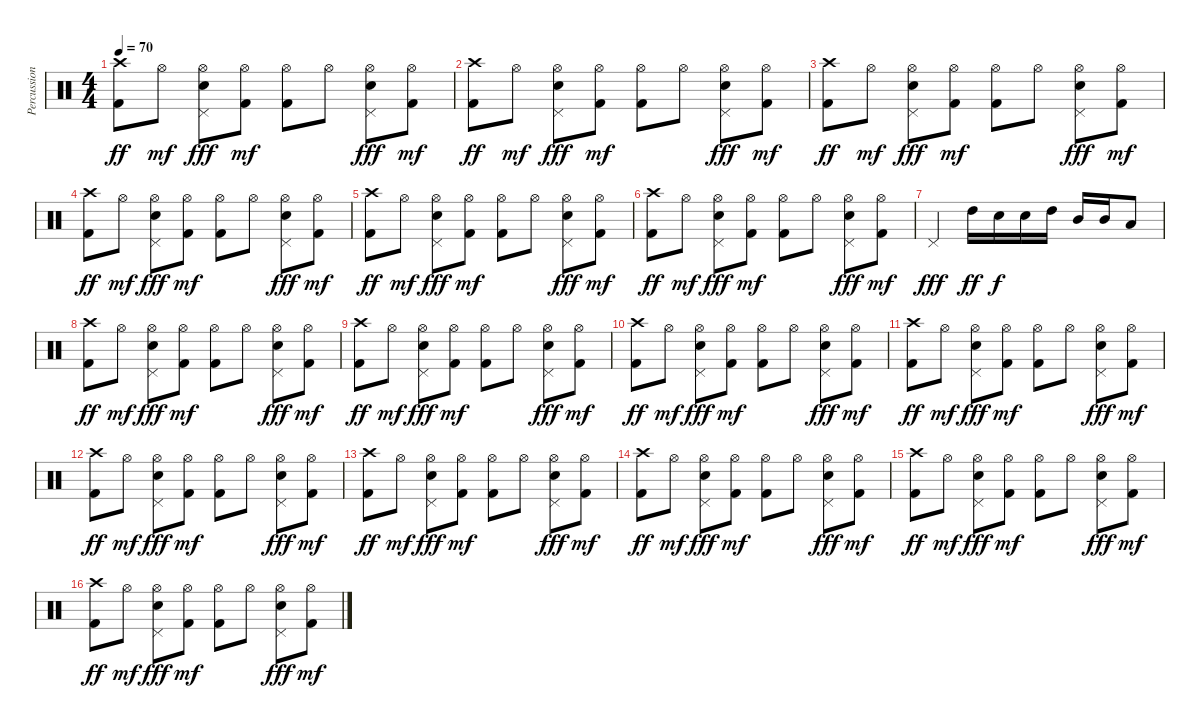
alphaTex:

\track ("Percussion" "Percussion") {instrument percussion}
\staff {score}
\articulation defaults
\ts (4 4)
\tempo 70
\clef neutral
\ks c
("Crash high (hit)" "Kick (hit) 2").8{dy ff} "Hi-Hat (open)".8{dy mf} ("Hi-Hat (open)" "Electric Snare (hit)" "Pedal Hi-Hat (hit)").8{dy fff} ("Hi-Hat (open)" "Kick (hit) 2").8{dy mf} ("Hi-Hat (open)" "Kick (hit) 2").8 "Hi-Hat (open)".8 ("Hi-Hat (open)" "Electric Snare (hit)" "Pedal Hi-Hat (hit)").8{dy fff} ("Hi-Hat (open)" "Kick (hit) 2").8{dy mf} |
("Crash high (hit)" "Kick (hit) 2").8{dy ff} "Hi-Hat (open)".8{dy mf} ("Hi-Hat (open)" "Electric Snare (hit)" "Pedal Hi-Hat (hit)").8{dy fff} ("Hi-Hat (open)" "Kick (hit) 2").8{dy mf} ("Hi-Hat (open)" "Kick (hit) 2").8 "Hi-Hat (open)".8 ("Hi-Hat (open)" "Electric Snare (hit)" "Pedal Hi-Hat (hit)").8{dy fff} ("Hi-Hat (open)" "Kick (hit) 2").8{dy mf} |
("Crash high (hit)" "Kick (hit) 2").8{dy ff} "Hi-Hat (open)".8{dy mf} ("Hi-Hat (open)" "Electric Snare (hit)" "Pedal Hi-Hat (hit)").8{dy fff} ("Hi-Hat (open)" "Kick (hit) 2").8{dy mf} ("Hi-Hat (open)" "Kick (hit) 2").8 "Hi-Hat (open)".8 ("Hi-Hat (open)" "Electric Snare (hit)" "Pedal Hi-Hat (hit)").8{dy fff} ("Hi-Hat (open)" "Kick (hit) 2").8{dy mf} |
("Crash high (hit)" "Kick (hit) 2").8{dy ff} "Hi-Hat (open)".8{dy mf} ("Hi-Hat (open)" "Electric Snare (hit)" "Pedal Hi-Hat (hit)").8{dy fff} ("Hi-Hat (open)" "Kick (hit) 2").8{dy mf} ("Hi-Hat (open)" "Kick (hit) 2").8 "Hi-Hat (open)".8 ("Hi-Hat (open)" "Electric Snare (hit)" "Pedal Hi-Hat (hit)").8{dy fff} ("Hi-Hat (open)" "Kick (hit) 2").8{dy mf} |
("Crash high (hit)" "Kick (hit) 2").8{dy ff} "Hi-Hat (open)".8{dy mf} ("Hi-Hat (open)" "Electric Snare (hit)" "Pedal Hi-Hat (hit)").8{dy fff} ("Hi-Hat (open)" "Kick (hit) 2").8{dy mf} ("Hi-Hat (open)" "Kick (hit) 2").8 "Hi-Hat (open)".8 ("Hi-Hat (open)" "Electric Snare (hit)" "Pedal Hi-Hat (hit)").8{dy fff} ("Hi-Hat (open)" "Kick (hit) 2").8{dy mf} |
("Crash high (hit)" "Kick (hit) 2").8{dy ff} "Hi-Hat (open)".8{dy mf} ("Hi-Hat (open)" "Electric Snare (hit)" "Pedal Hi-Hat (hit)").8{dy fff} ("Hi-Hat (open)" "Kick (hit) 2").8{dy mf} ("Hi-Hat (open)" "Kick (hit) 2").8 "Hi-Hat (open)".8 ("Hi-Hat (open)" "Electric Snare (hit)" "Pedal Hi-Hat (hit)").8{dy fff} ("Hi-Hat (open)" "Kick (hit) 2").8{dy mf} |
"Pedal Hi-Hat (hit)".4{dy fff} "High Tom (hit)".16{dy ff} "Electric Snare (hit)".16{dy f} "Electric Snare (hit)".16 "High Tom (hit)".16 "Mid Tom (hit)".16 "Mid Tom (hit)".16 "Low Tom (hit)".8 |
("Crash high (hit)" "Kick (hit) 2").8{dy ff} "Hi-Hat (open)".8{dy mf} ("Hi-Hat (open)" "Electric Snare (hit)" "Pedal Hi-Hat (hit)").8{dy fff} ("Hi-Hat (open)" "Kick (hit) 2").8{dy mf} ("Hi-Hat (open)" "Kick (hit) 2").8 "Hi-Hat (open)".8 ("Hi-Hat (open)" "Electric Snare (hit)" "Pedal Hi-Hat (hit)").8{dy fff} ("Hi-Hat (open)" "Kick (hit) 2").8{dy mf} |
("Crash high (hit)" "Kick (hit) 2").8{dy ff} "Hi-Hat (open)".8{dy mf} ("Hi-Hat (open)" "Electric Snare (hit)" "Pedal Hi-Hat (hit)").8{dy fff} ("Hi-Hat (open)" "Kick (hit) 2").8{dy mf} ("Hi-Hat (open)" "Kick (hit) 2").8 "Hi-Hat (open)".8 ("Hi-Hat (open)" "Electric Snare (hit)" "Pedal Hi-Hat (hit)").8{dy fff} ("Hi-Hat (open)" "Kick (hit) 2").8{dy mf} |
("Crash high (hit)" "Kick (hit) 2").8{dy ff} "Hi-Hat (open)".8{dy mf} ("Hi-Hat (open)" "Electric Snare (hit)" "Pedal Hi-Hat (hit)").8{dy fff} ("Hi-Hat (open)" "Kick (hit) 2").8{dy mf} ("Hi-Hat (open)" "Kick (hit) 2").8 "Hi-Hat (open)".8 ("Hi-Hat (open)" "Electric Snare (hit)" "Pedal Hi-Hat (hit)").8{dy fff} ("Hi-Hat (open)" "Kick (hit) 2").8{dy mf} |
("Crash high (hit)" "Kick (hit) 2").8{dy ff} "Hi-Hat (open)".8{dy mf} ("Hi-Hat (open)" "Electric Snare (hit)" "Pedal Hi-Hat (hit)").8{dy fff} ("Hi-Hat (open)" "Kick (hit) 2").8{dy mf} ("Hi-Hat (open)" "Kick (hit) 2").8 "Hi-Hat (open)".8 ("Hi-Hat (open)" "Electric Snare (hit)" "Pedal Hi-Hat (hit)").8{dy fff} ("Hi-Hat (open)" "Kick (hit) 2").8{dy mf} |
("Crash high (hit)" "Kick (hit) 2").8{dy ff} "Hi-Hat (open)".8{dy mf} ("Hi-Hat (open)" "Electric Snare (hit)" "Pedal Hi-Hat (hit)").8{dy fff} ("Hi-Hat (open)" "Kick (hit) 2").8{dy mf} ("Hi-Hat (open)" "Kick (hit) 2").8 "Hi-Hat (open)".8 ("Hi-Hat (open)" "Electric Snare (hit)" "Pedal Hi-Hat (hit)").8{dy fff} ("Hi-Hat (open)" "Kick (hit) 2").8{dy mf} |
("Crash high (hit)" "Kick (hit) 2").8{dy ff} "Hi-Hat (open)".8{dy mf} ("Hi-Hat (open)" "Electric Snare (hit)" "Pedal Hi-Hat (hit)").8{dy fff} ("Hi-Hat (open)" "Kick (hit) 2").8{dy mf} ("Hi-Hat (open)" "Kick (hit) 2").8 "Hi-Hat (open)".8 ("Hi-Hat (open)" "Electric Snare (hit)" "Pedal Hi-Hat (hit)").8{dy fff} ("Hi-Hat (open)" "Kick (hit) 2").8{dy mf} |
("Crash high (hit)" "Kick (hit) 2").8{dy ff} "Hi-Hat (open)".8{dy mf} ("Hi-Hat (open)" "Electric Snare (hit)" "Pedal Hi-Hat (hit)").8{dy fff} ("Hi-Hat (open)" "Kick (hit) 2").8{dy mf} ("Hi-Hat (open)" "Kick (hit) 2").8 "Hi-Hat (open)".8 ("Hi-Hat (open)" "Electric Snare (hit)" "Pedal Hi-Hat (hit)").8{dy fff} ("Hi-Hat (open)" "Kick (hit) 2").8{dy mf} |
("Crash high (hit)" "Kick (hit) 2").8{dy ff} "Hi-Hat (open)".8{dy mf} ("Hi-Hat (open)" "Electric Snare (hit)" "Pedal Hi-Hat (hit)").8{dy fff} ("Hi-Hat (open)" "Kick (hit) 2").8{dy mf} ("Hi-Hat (open)" "Kick (hit) 2").8 "Hi-Hat (open)".8 ("Hi-Hat (open)" "Electric Snare (hit)" "Pedal Hi-Hat (hit)").8{dy fff} ("Hi-Hat (open)" "Kick (hit) 2").8{dy mf} |
("Crash high (hit)" "Kick (hit) 2").8{dy ff} "Hi-Hat (open)".8{dy mf} ("Hi-Hat (open)" "Electric Snare (hit)" "Pedal Hi-Hat (hit)").8{dy fff} ("Hi-Hat (open)" "Kick (hit) 2").8{dy mf} ("Hi-Hat (open)" "Kick (hit) 2").8 "Hi-Hat (open)".8 ("Hi-Hat (open)" "Electric Snare (hit)" "Pedal Hi-Hat (hit)").8{dy fff} ("Hi-Hat (open)" "Kick (hit) 2").8{dy mf}
